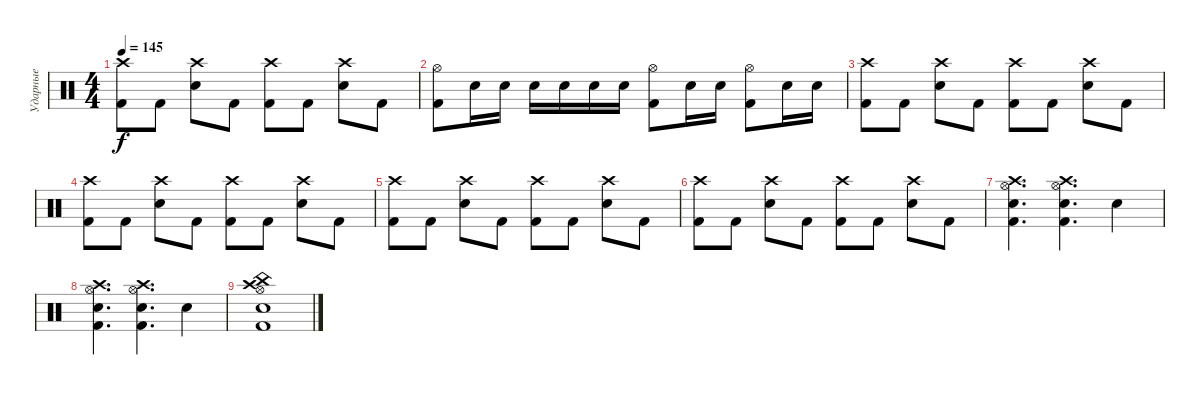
\track ("Ударные" "Ударные") {instrument percussion}
\staff {score}
\articulation defaults
\ts (4 4)
\tempo 145
\clef neutral
\ks c
("Crash high (hit)" "Kick (hit) 2").8{dy f} "Kick (hit) 2".8 ("Crash high (hit)" "Electric Snare (hit)").8 "Kick (hit) 2".8 ("Crash high (hit)" "Kick (hit) 2").8 "Kick (hit) 2".8 ("Crash high (hit)" "Electric Snare (hit)").8 "Kick (hit) 2".8 |
("Hi-Hat (open)" "Kick (hit) 2").8 "Electric Snare (hit)".16 "Electric Snare (hit)".16 "Electric Snare (hit)".16 "Electric Snare (hit)".16 "Electric Snare (hit)".16 "Electric Snare (hit)".16 ("Hi-Hat (open)" "Kick (hit) 2").8 "Electric Snare (hit)".16 "Electric Snare (hit)".16 ("Hi-Hat (open)" "Kick (hit) 2").8 "Electric Snare (hit)".16 "Electric Snare (hit)".16 |
("Crash high (hit)" "Kick (hit) 2").8 "Kick (hit) 2".8 ("Crash high (hit)" "Electric Snare (hit)").8 "Kick (hit) 2".8 ("Crash high (hit)" "Kick (hit) 2").8 "Kick (hit) 2".8 ("Crash high (hit)" "Electric Snare (hit)").8 "Kick (hit) 2".8 |
("Crash high (hit)" "Kick (hit) 2").8 "Kick (hit) 2".8 ("Crash high (hit)" "Electric Snare (hit)").8 "Kick (hit) 2".8 ("Crash high (hit)" "Kick (hit) 2").8 "Kick (hit) 2".8 ("Crash high (hit)" "Electric Snare (hit)").8 "Kick (hit) 2".8 |
("Crash high (hit)" "Kick (hit) 2").8 "Kick (hit) 2".8 ("Crash high (hit)" "Electric Snare (hit)").8 "Kick (hit) 2".8 ("Crash high (hit)" "Kick (hit) 2").8 "Kick (hit) 2".8 ("Crash high (hit)" "Electric Snare (hit)").8 "Kick (hit) 2".8 |
("Crash high (hit)" "Kick (hit) 2").8 "Kick (hit) 2".8 ("Crash high (hit)" "Electric Snare (hit)").8 "Kick (hit) 2".8 ("Crash high (hit)" "Kick (hit) 2").8 "Kick (hit) 2".8 ("Crash high (hit)" "Electric Snare (hit)").8 "Kick (hit) 2".8 |
("Crash high (hit)" "Hi-Hat (open)" "Electric Snare (hit)" "Kick (hit) 2").4{d} ("Crash high (hit)" "Hi-Hat (open)" "Electric Snare (hit)" "Kick (hit) 2").4{d} "Electric Snare (hit)".4 |
("Crash high (hit)" "Hi-Hat (open)" "Electric Snare (hit)" "Kick (hit) 2").4{d} ("Crash high (hit)" "Hi-Hat (open)" "Electric Snare (hit)" "Kick (hit) 2").4{d} "Electric Snare (hit)".4 |
("China (hit)" "Crash high (hit)" "Hi-Hat (open)" "Electric Snare (hit)" "Kick (hit) 2").1
